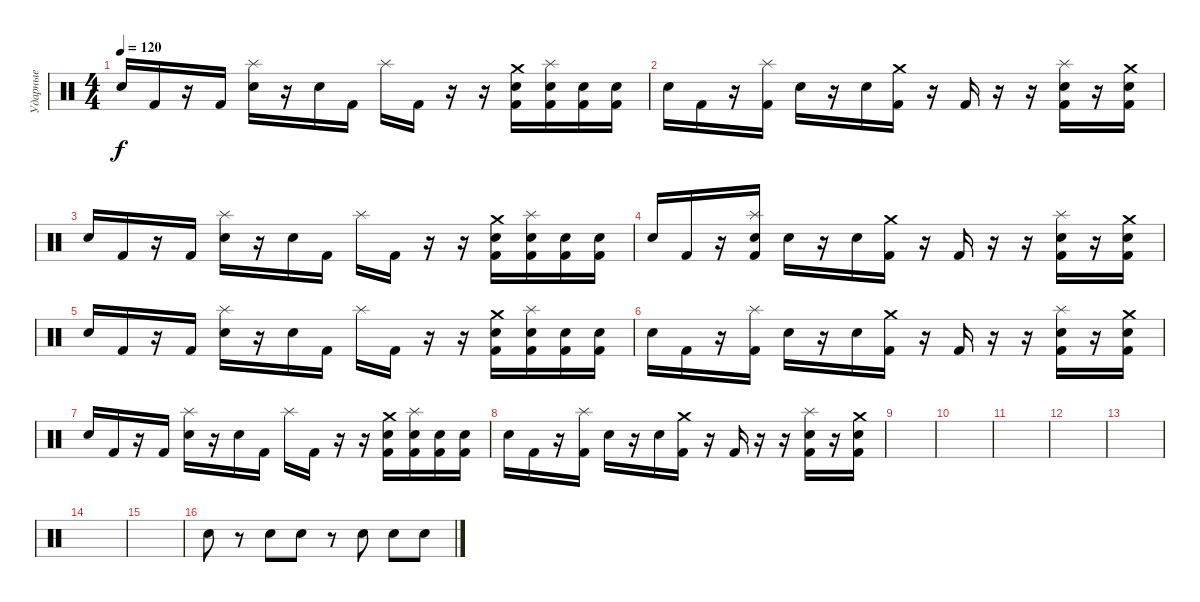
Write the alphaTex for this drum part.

\track ("Ударные" "Ударные") {instrument percussion}
\staff {score}
\articulation defaults
\ts (4 4)
\tempo 120
\clef neutral
\ks c "Electric Snare (hit)".16{dy f} "Kick (hit) 2".16
r.16 "Kick (hit) 2".16 ("Splash (hit)" "Electric Snare (hit)").16 r.16 "Electric Snare (hit)".16 "Kick (hit) 2".16 "Splash (hit)".16 "Kick (hit) 2".16 r.16 r.16 ("Crash medium (hit)" "Electric Snare (hit)" "Kick (hit) 2").16 ("Splash (hit)" "Electric Snare (hit)" "Kick (hit) 2").16 ("Electric Snare (hit)" "Kick (hit) 2").16 ("Electric Snare (hit)" "Kick (hit) 2").16 |
"Electric Snare (hit)".16 "Kick (hit) 2".16 r.16 ("Splash (hit)" "Kick (hit) 2").16 "Electric Snare (hit)".16 r.16 "Electric Snare (hit)".16 ("Crash medium (hit)" "Kick (hit) 2").16 r.16 "Kick (hit) 2".16 r.16 r.16 ("Splash (hit)" "Electric Snare (hit)" "Kick (hit) 2").16 r.16 ("Crash medium (hit)" "Electric Snare (hit)" "Kick (hit) 2").16 |
"Electric Snare (hit)".16 "Kick (hit) 2".16 r.16 "Kick (hit) 2".16 ("Splash (hit)" "Electric Snare (hit)").16 r.16 "Electric Snare (hit)".16 "Kick (hit) 2".16 "Splash (hit)".16 "Kick (hit) 2".16 r.16 r.16 ("Crash medium (hit)" "Electric Snare (hit)" "Kick (hit) 2").16 ("Splash (hit)" "Electric Snare (hit)" "Kick (hit) 2").16 ("Electric Snare (hit)" "Kick (hit) 2").16 ("Electric Snare (hit)" "Kick (hit) 2").16 |
"Electric Snare (hit)".16 "Kick (hit) 2".16 r.16 ("Splash (hit)" "Snare (hit)" "Kick (hit) 2").16 "Electric Snare (hit)".16 r.16 "Electric Snare (hit)".16 ("Crash medium (hit)" "Kick (hit) 2").16 r.16 "Kick (hit) 2".16 r.16 r.16 ("Splash (hit)" "Electric Snare (hit)" "Kick (hit) 2").16 r.16 ("Crash medium (hit)" "Electric Snare (hit)" "Kick (hit) 2").16 |
"Electric Snare (hit)".16 "Kick (hit) 2".16 r.16 "Kick (hit) 2".16 ("Splash (hit)" "Electric Snare (hit)").16 r.16 "Electric Snare (hit)".16 "Kick (hit) 2".16 "Splash (hit)".16 "Kick (hit) 2".16 r.16 r.16 ("Crash medium (hit)" "Electric Snare (hit)" "Kick (hit) 2").16 ("Splash (hit)" "Electric Snare (hit)" "Kick (hit) 2").16 ("Electric Snare (hit)" "Kick (hit) 2").16 ("Electric Snare (hit)" "Kick (hit) 2").16 |
"Electric Snare (hit)".16 "Kick (hit) 2".16 r.16 ("Splash (hit)" "Kick (hit) 2").16 "Electric Snare (hit)".16 r.16 "Electric Snare (hit)".16 ("Crash medium (hit)" "Kick (hit) 2").16 r.16 "Kick (hit) 2".16 r.16 r.16 ("Splash (hit)" "Electric Snare (hit)" "Kick (hit) 2").16 r.16 ("Crash medium (hit)" "Electric Snare (hit)" "Kick (hit) 2").16 |
"Electric Snare (hit)".16 "Kick (hit) 2".16 r.16 "Kick (hit) 2".16 ("Splash (hit)" "Electric Snare (hit)").16 r.16 "Electric Snare (hit)".16 "Kick (hit) 2".16 "Splash (hit)".16 "Kick (hit) 2".16 r.16 r.16 ("Crash medium (hit)" "Electric Snare (hit)" "Kick (hit) 2").16 ("Splash (hit)" "Electric Snare (hit)" "Kick (hit) 2").16 ("Electric Snare (hit)" "Kick (hit) 2").16 ("Electric Snare (hit)" "Kick (hit) 2").16 |
"Electric Snare (hit)".16 "Kick (hit) 2".16 r.16 ("Splash (hit)" "Kick (hit) 2").16 "Electric Snare (hit)".16 r.16 "Electric Snare (hit)".16 ("Crash medium (hit)" "Kick (hit) 2").16 r.16 "Kick (hit) 2".16 r.16 r.16 ("Splash (hit)" "Electric Snare (hit)" "Kick (hit) 2").16 r.16 ("Crash medium (hit)" "Electric Snare (hit)" "Kick (hit) 2").16 |
|
|
|
|
|
|
|
"Electric Snare (hit)".8 r.8 "Electric Snare (hit)".8 "Electric Snare (hit)".8 r.8 "Electric Snare (hit)".8 "Electric Snare (hit)".8 "Electric Snare (hit)".8
